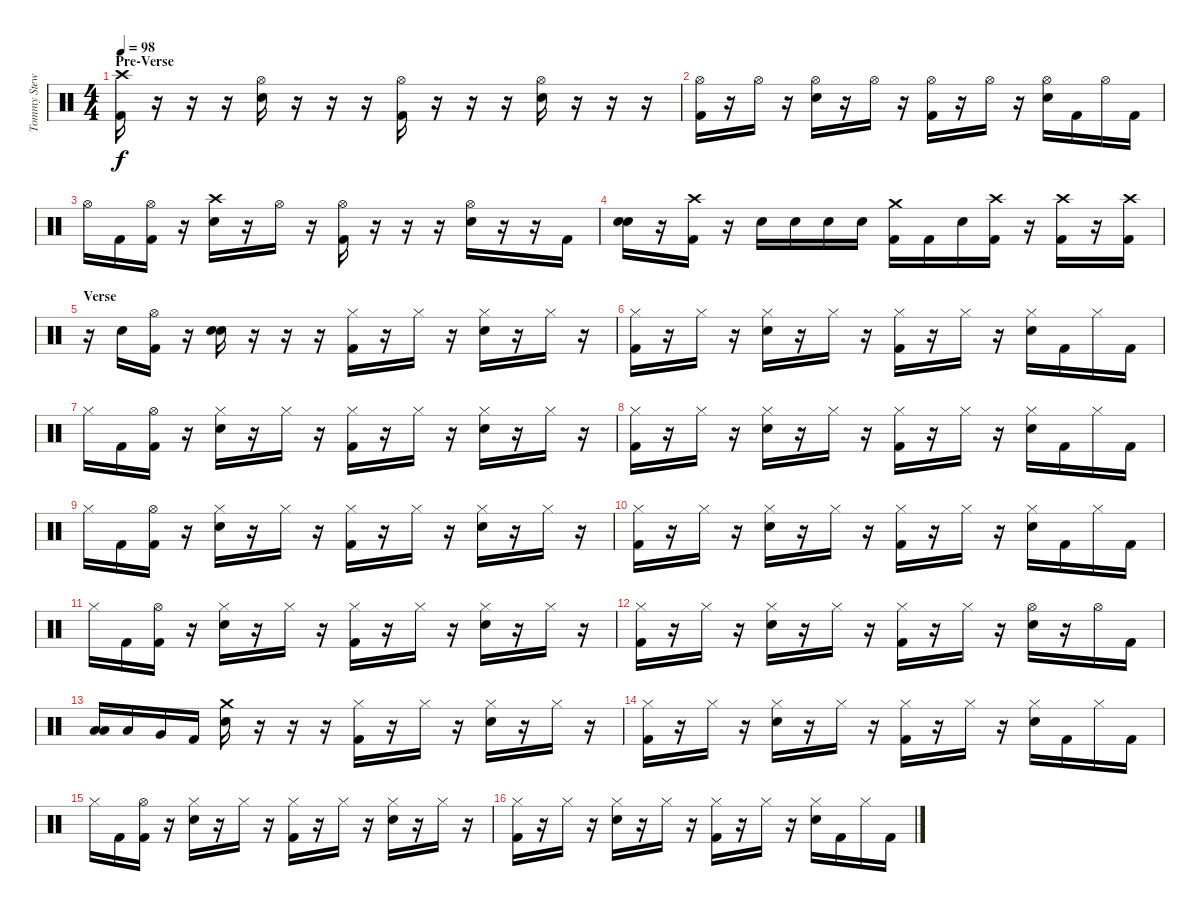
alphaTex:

\track ("Tommy Stewart - Drums" "Tommy Stew") {instrument percussion}
\staff {score}
\articulation defaults
\ts (4 4)
\section ("" "Pre-Verse")
\tempo 98
\clef neutral
\ks c
("Crash high (hit)" "Kick (hit) 2").16{dy f} r.16 r.16 r.16 ("Hi-Hat (open)" "Snare (hit) 2").16 r.16 r.16 r.16 ("Hi-Hat (open)" "Kick (hit) 2").16 r.16 r.16 r.16 ("Hi-Hat (open)" "Snare (hit) 2").16 r.16 r.16 r.16 |
("Hi-Hat (open)" "Kick (hit) 2").16 r.16 "Hi-Hat (open)".16 r.16 ("Hi-Hat (open)" "Snare (hit) 2").16 r.16 "Hi-Hat (open)".16 r.16 ("Hi-Hat (open)" "Kick (hit) 2").16 r.16 "Hi-Hat (open)".16 r.16 ("Hi-Hat (open)" "Snare (hit) 2").16 "Kick (hit) 2".16 "Hi-Hat (open)".16 "Kick (hit) 2".16 |
"Hi-Hat (open)".16 "Kick (hit) 2".16 ("Hi-Hat (open)" "Kick (hit) 2").16 r.16 ("Crash high (hit)" "Snare (hit) 2").16 r.16 "Hi-Hat (open)".16 r.16 ("Hi-Hat (open)" "Kick (hit) 2").16 r.16 r.16 r.16 ("Hi-Hat (open)" "Snare (hit) 2").16 r.16 r.16 "Kick (hit) 2".16 |
("Snare (hit) 2" "Snare (hit) 2").16 r.16 ("Crash high (hit)" "Kick (hit) 2").16 r.16 "Snare (hit) 2".16 "Snare (hit) 2".16 "Snare (hit) 2".16 "Snare (hit) 2".16 ("Crash medium (hit)" "Kick (hit) 2").16 "Kick (hit) 2".16 "Snare (hit) 2".16 ("Crash high (hit)" "Kick (hit) 2").16 r.16 ("Crash high (hit)" "Kick (hit) 2").16 r.16 ("Crash high (hit)" "Kick (hit) 2").16 |
\section ("" "Verse")
r.16 "Snare (hit) 2".16 ("Hi-Hat (open)" "Kick (hit) 2").16 r.16 ("Snare (hit) 2" "Snare (hit) 2").16 r.16 r.16 r.16 ("Hi-Hat (closed)" "Kick (hit) 2").16 r.16 "Hi-Hat (closed)".16 r.16 ("Hi-Hat (closed)" "Snare (hit) 2").16 r.16 "Hi-Hat (closed)".16 r.16 |
("Hi-Hat (closed)" "Kick (hit) 2").16 r.16 "Hi-Hat (closed)".16 r.16 ("Hi-Hat (closed)" "Snare (hit) 2").16 r.16 "Hi-Hat (closed)".16 r.16 ("Hi-Hat (closed)" "Kick (hit) 2").16 r.16 "Hi-Hat (closed)".16 r.16 ("Hi-Hat (closed)" "Snare (hit) 2").16 "Kick (hit) 2".16 "Hi-Hat (closed)".16 "Kick (hit) 2".16 |
"Hi-Hat (closed)".16 "Kick (hit) 2".16 ("Hi-Hat (open)" "Kick (hit) 2").16 r.16 ("Hi-Hat (closed)" "Snare (hit) 2").16 r.16 "Hi-Hat (closed)".16 r.16 ("Hi-Hat (closed)" "Kick (hit) 2").16 r.16 "Hi-Hat (closed)".16 r.16 ("Hi-Hat (closed)" "Snare (hit) 2").16 r.16 "Hi-Hat (closed)".16 r.16 |
("Hi-Hat (closed)" "Kick (hit) 2").16 r.16 "Hi-Hat (closed)".16 r.16 ("Hi-Hat (closed)" "Snare (hit) 2").16 r.16 "Hi-Hat (closed)".16 r.16 ("Hi-Hat (closed)" "Kick (hit) 2").16 r.16 "Hi-Hat (closed)".16 r.16 ("Hi-Hat (closed)" "Snare (hit) 2").16 "Kick (hit) 2".16 "Hi-Hat (closed)".16 "Kick (hit) 2".16 |
"Hi-Hat (closed)".16 "Kick (hit) 2".16 ("Hi-Hat (open)" "Kick (hit) 2").16 r.16 ("Hi-Hat (closed)" "Snare (hit) 2").16 r.16 "Hi-Hat (closed)".16 r.16 ("Hi-Hat (closed)" "Kick (hit) 2").16 r.16 "Hi-Hat (closed)".16 r.16 ("Hi-Hat (closed)" "Snare (hit) 2").16 r.16 "Hi-Hat (closed)".16 r.16 |
("Hi-Hat (closed)" "Kick (hit) 2").16 r.16 "Hi-Hat (closed)".16 r.16 ("Hi-Hat (closed)" "Snare (hit) 2").16 r.16 "Hi-Hat (closed)".16 r.16 ("Hi-Hat (closed)" "Kick (hit) 2").16 r.16 "Hi-Hat (closed)".16 r.16 ("Hi-Hat (closed)" "Snare (hit) 2").16 "Kick (hit) 2".16 "Hi-Hat (closed)".16 "Kick (hit) 2".16 |
"Hi-Hat (closed)".16 "Kick (hit) 2".16 ("Hi-Hat (open)" "Kick (hit) 2").16 r.16 ("Hi-Hat (closed)" "Snare (hit) 2").16 r.16 "Hi-Hat (closed)".16 r.16 ("Hi-Hat (closed)" "Kick (hit) 2").16 r.16 "Hi-Hat (closed)".16 r.16 ("Hi-Hat (closed)" "Snare (hit) 2").16 r.16 "Hi-Hat (closed)".16 r.16 |
("Hi-Hat (closed)" "Kick (hit) 2").16 r.16 "Hi-Hat (closed)".16 r.16 ("Hi-Hat (closed)" "Snare (hit) 2").16 r.16 "Hi-Hat (closed)".16 r.16 ("Hi-Hat (closed)" "Kick (hit) 2").16 r.16 "Hi-Hat (closed)".16 r.16 ("Hi-Hat (open)" "Snare (hit) 2").16 r.16 "Hi-Hat (open)".16 "Kick (hit) 2".16 |
("Low Tom (hit)" "Low Tom (hit)").16 "Low Tom (hit)".16 "Very Low Tom (hit)".16 "Kick (hit) 2".16 ("Crash medium (hit)" "Snare (hit) 2").16 r.16 r.16 r.16 ("Hi-Hat (closed)" "Kick (hit) 2").16 r.16 "Hi-Hat (closed)".16 r.16 ("Hi-Hat (closed)" "Snare (hit) 2").16 r.16 "Hi-Hat (closed)".16 r.16 |
("Hi-Hat (closed)" "Kick (hit) 2").16 r.16 "Hi-Hat (closed)".16 r.16 ("Hi-Hat (closed)" "Snare (hit) 2").16 r.16 "Hi-Hat (closed)".16 r.16 ("Hi-Hat (closed)" "Kick (hit) 2").16 r.16 "Hi-Hat (closed)".16 r.16 ("Hi-Hat (closed)" "Snare (hit) 2").16 "Kick (hit) 2".16 "Hi-Hat (closed)".16 "Kick (hit) 2".16 |
"Hi-Hat (closed)".16 "Kick (hit) 2".16 ("Hi-Hat (open)" "Kick (hit) 2").16 r.16 ("Hi-Hat (closed)" "Snare (hit) 2").16 r.16 "Hi-Hat (closed)".16 r.16 ("Hi-Hat (closed)" "Kick (hit) 2").16 r.16 "Hi-Hat (closed)".16 r.16 ("Hi-Hat (closed)" "Snare (hit) 2").16 r.16 "Hi-Hat (closed)".16 r.16 |
("Hi-Hat (closed)" "Kick (hit) 2").16 r.16 "Hi-Hat (closed)".16 r.16 ("Hi-Hat (closed)" "Snare (hit) 2").16 r.16 "Hi-Hat (closed)".16 r.16 ("Hi-Hat (closed)" "Kick (hit) 2").16 r.16 "Hi-Hat (closed)".16 r.16 ("Hi-Hat (closed)" "Snare (hit) 2").16 "Kick (hit) 2".16 "Hi-Hat (closed)".16 "Kick (hit) 2".16
